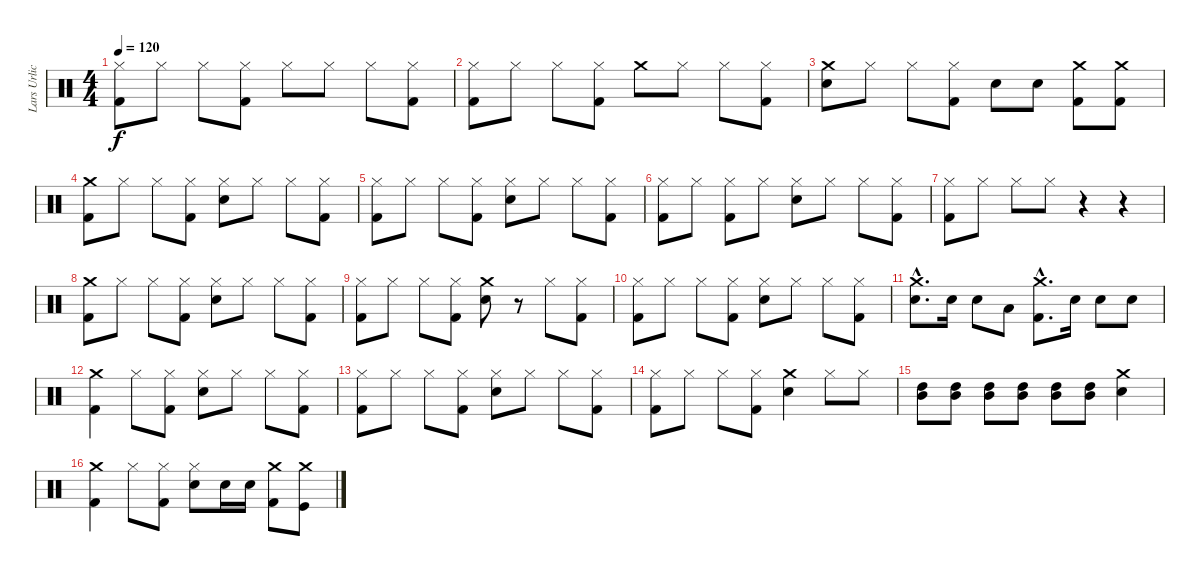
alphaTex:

\track ("Lars Urlich (drums)" "Lars Urlic") {instrument percussion}
\staff {score}
\articulation defaults
\ts (4 4)
\tempo 120
\clef neutral
\ks c
("Kick (hit) 2" "Hi-Hat (closed)").8{dy f} "Hi-Hat (closed)".8 "Hi-Hat (closed)".8 ("Kick (hit) 2" "Hi-Hat (closed)").8 "Hi-Hat (closed)".8 "Hi-Hat (closed)".8 "Hi-Hat (closed)".8 ("Kick (hit) 2" "Hi-Hat (closed)").8 |
("Kick (hit) 2" "Hi-Hat (closed)").8 "Hi-Hat (closed)".8 "Hi-Hat (closed)".8 ("Kick (hit) 2" "Hi-Hat (closed)").8 "Crash medium (hit)".8 "Hi-Hat (closed)".8 "Hi-Hat (closed)".8 ("Kick (hit) 2" "Hi-Hat (closed)").8 |
("Crash medium (hit)" "Snare (hit) 2").8 "Hi-Hat (closed)".8 "Hi-Hat (closed)".8 ("Kick (hit) 2" "Hi-Hat (closed)").8 "Snare (hit) 2".8 "Snare (hit) 2".8 ("Kick (hit) 2" "Crash medium (hit)").8 ("Kick (hit) 2" "Crash medium (hit)").8 |
("Crash medium (hit)" "Kick (hit) 2").8 "Hi-Hat (closed)".8 "Hi-Hat (closed)".8 ("Kick (hit) 2" "Hi-Hat (closed)").8 ("Snare (hit) 2" "Hi-Hat (closed)").8 "Hi-Hat (closed)".8 "Hi-Hat (closed)".8 ("Kick (hit) 2" "Hi-Hat (closed)").8 |
("Hi-Hat (closed)" "Kick (hit) 2").8 "Hi-Hat (closed)".8 "Hi-Hat (closed)".8 ("Kick (hit) 2" "Hi-Hat (closed)").8 ("Snare (hit) 2" "Hi-Hat (closed)").8 "Hi-Hat (closed)".8 "Hi-Hat (closed)".8 ("Kick (hit) 2" "Hi-Hat (closed)").8 |
("Hi-Hat (closed)" "Kick (hit) 2").8 "Hi-Hat (closed)".8 ("Kick (hit) 2" "Hi-Hat (closed)").8 "Hi-Hat (closed)".8 ("Snare (hit) 2" "Hi-Hat (closed)").8 "Hi-Hat (closed)".8 "Hi-Hat (closed)".8 ("Kick (hit) 2" "Hi-Hat (closed)").8 |
("Hi-Hat (closed)" "Kick (hit) 2").8 "Hi-Hat (closed)".8 "Hi-Hat (closed)".8 "Hi-Hat (closed)".8 r.4 r.4 |
("Kick (hit) 2" "Crash medium (hit)").8 "Hi-Hat (closed)".8 "Hi-Hat (closed)".8 ("Kick (hit) 2" "Hi-Hat (closed)").8 ("Snare (hit) 2" "Hi-Hat (closed)").8 "Hi-Hat (closed)".8 "Hi-Hat (closed)".8 ("Kick (hit) 2" "Hi-Hat (closed)").8 |
("Hi-Hat (closed)" "Kick (hit) 2").8 "Hi-Hat (closed)".8 "Hi-Hat (closed)".8 ("Kick (hit) 2" "Hi-Hat (closed)").8 ("Crash medium (hit)" "Snare (hit) 2").8 r.8 "Hi-Hat (closed)".8 ("Kick (hit) 2" "Hi-Hat (closed)").8 |
("Hi-Hat (closed)" "Kick (hit) 2").8 "Hi-Hat (closed)".8 "Hi-Hat (closed)".8 ("Kick (hit) 2" "Hi-Hat (closed)").8 ("Hi-Hat (closed)" "Snare (hit) 2").8 "Hi-Hat (closed)".8 "Hi-Hat (closed)".8 ("Kick (hit) 2" "Hi-Hat (closed)").8 |
("Snare (hit) 2"{hac} "Crash medium (hit)"{hac}).8{d} "Snare (hit) 2".16 "Snare (hit) 2".8 "Low Tom (hit)".8 ("Kick (hit) 2"{hac} "Crash medium (hit)"{hac}).8{d} "Snare (hit) 2".16 "Snare (hit) 2".8 "Snare (hit) 2".8 |
("Kick (hit) 2" "Crash medium (hit)").4 "Hi-Hat (closed)".8 ("Kick (hit) 2" "Hi-Hat (closed)").8 ("Snare (hit) 2" "Hi-Hat (closed)").8 "Hi-Hat (closed)".8 "Hi-Hat (closed)".8 ("Kick (hit) 2" "Hi-Hat (closed)").8 |
("Kick (hit) 2" "Hi-Hat (closed)").8 "Hi-Hat (closed)".8 "Hi-Hat (closed)".8 ("Kick (hit) 2" "Hi-Hat (closed)").8 ("Snare (hit) 2" "Hi-Hat (closed)").8 "Hi-Hat (closed)".8 "Hi-Hat (closed)".8 ("Kick (hit) 2" "Hi-Hat (closed)").8 |
("Hi-Hat (closed)" "Kick (hit) 2").8 "Hi-Hat (closed)".8 "Hi-Hat (closed)".8 ("Kick (hit) 2" "Hi-Hat (closed)").8 ("Crash medium (hit)" "Snare (hit) 2").4 "Hi-Hat (closed)".8 "Hi-Hat (closed)".8 |
("High Tom (hit)" "Mid Tom (hit)").8 ("Mid Tom (hit)" "High Tom (hit)").8 ("Mid Tom (hit)" "High Tom (hit)").8 ("Mid Tom (hit)" "High Tom (hit)").8 ("Mid Tom (hit)" "High Tom (hit)").8 ("Mid Tom (hit)" "High Tom (hit)").8 ("Snare (hit) 2" "Crash medium (hit)").4 |
("Crash medium (hit)" "Kick (hit) 2").4 "Hi-Hat (closed)".8 ("Kick (hit) 2" "Hi-Hat (closed)").8 ("Snare (hit) 2" "Hi-Hat (closed)").8 "Snare (hit) 2".16 "Snare (hit) 2".16 ("Crash medium (hit)" "Kick (hit) 2").8 ("Crash medium (hit)" "Kick (hit)").8
